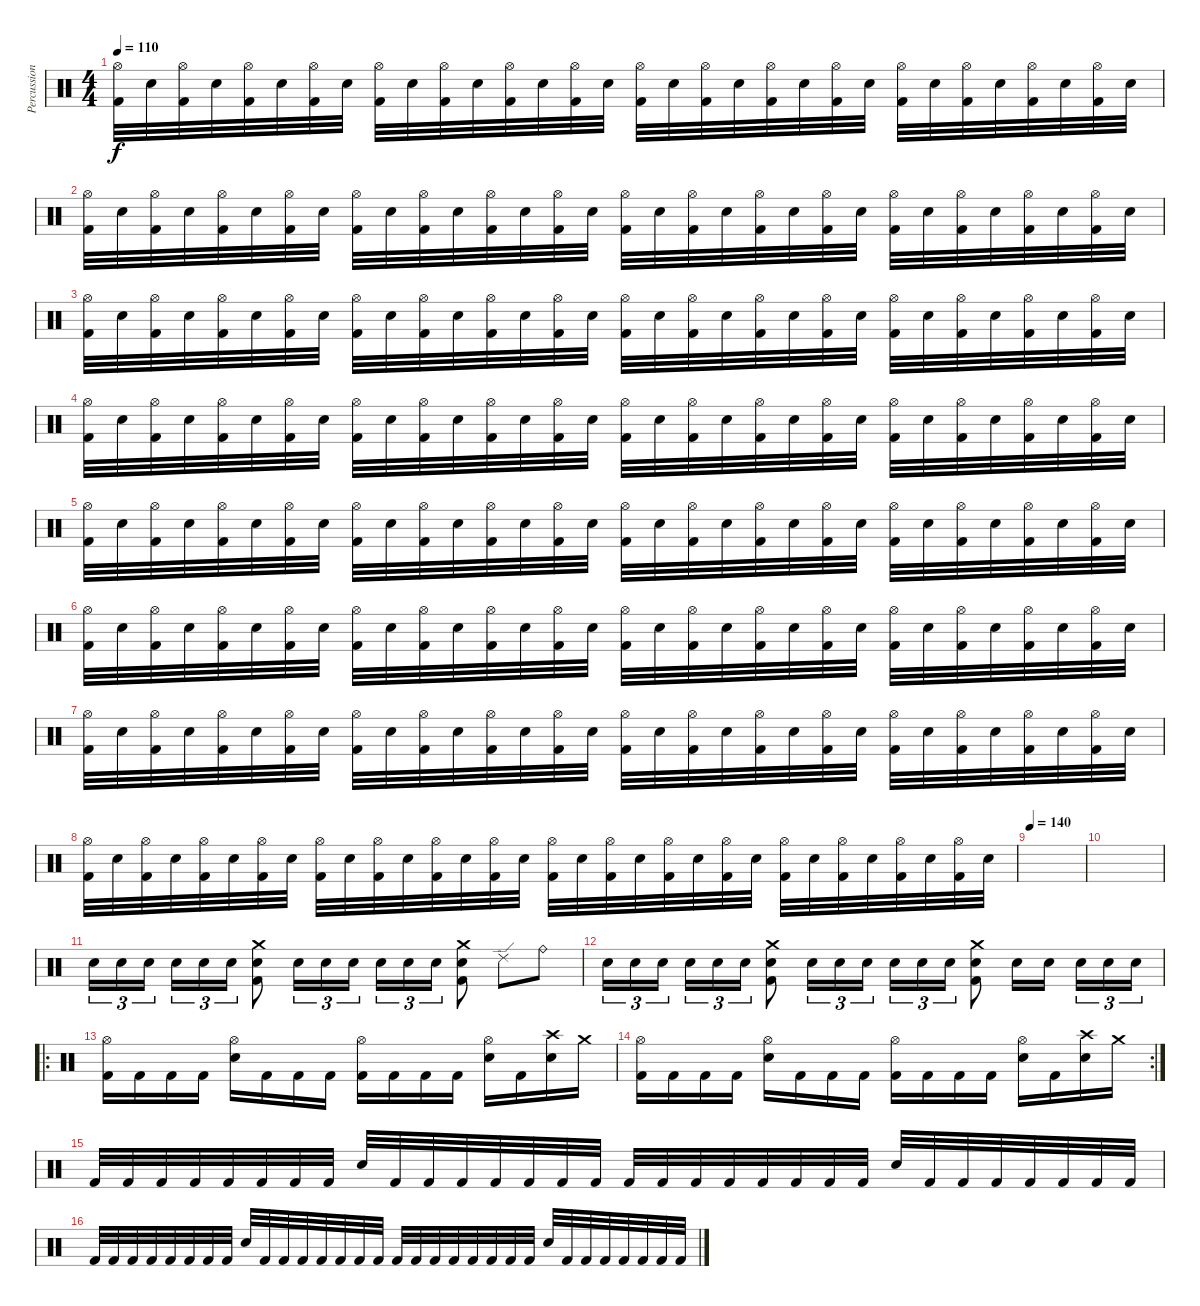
\track ("Percussion" "Percussion") {instrument percussion}
\staff {score}
\articulation defaults
\ts (4 4)
\tempo 110
\clef neutral
\ks c
("Hi-Hat (open)" "Kick (hit) 2").32{dy f} "Snare (hit) 2".32 ("Hi-Hat (open)" "Kick (hit) 2").32 "Snare (hit) 2".32 ("Hi-Hat (open)" "Kick (hit) 2").32 "Snare (hit) 2".32 ("Hi-Hat (open)" "Kick (hit) 2").32 "Snare (hit) 2".32 ("Hi-Hat (open)" "Kick (hit) 2").32 "Snare (hit) 2".32 ("Hi-Hat (open)" "Kick (hit) 2").32 "Snare (hit) 2".32 ("Hi-Hat (open)" "Kick (hit) 2").32 "Snare (hit) 2".32 ("Hi-Hat (open)" "Kick (hit) 2").32 "Snare (hit) 2".32 ("Hi-Hat (open)" "Kick (hit) 2").32 "Snare (hit) 2".32 ("Hi-Hat (open)" "Kick (hit) 2").32 "Snare (hit) 2".32 ("Hi-Hat (open)" "Kick (hit) 2").32 "Snare (hit) 2".32 ("Hi-Hat (open)" "Kick (hit) 2").32 "Snare (hit) 2".32 ("Hi-Hat (open)" "Kick (hit) 2").32 "Snare (hit) 2".32 ("Hi-Hat (open)" "Kick (hit) 2").32 "Snare (hit) 2".32 ("Hi-Hat (open)" "Kick (hit) 2").32 "Snare (hit) 2".32 ("Hi-Hat (open)" "Kick (hit) 2").32 "Snare (hit) 2".32 |
("Hi-Hat (open)" "Kick (hit) 2").32 "Snare (hit) 2".32 ("Hi-Hat (open)" "Kick (hit) 2").32 "Snare (hit) 2".32 ("Hi-Hat (open)" "Kick (hit) 2").32 "Snare (hit) 2".32 ("Hi-Hat (open)" "Kick (hit) 2").32 "Snare (hit) 2".32 ("Hi-Hat (open)" "Kick (hit) 2").32 "Snare (hit) 2".32 ("Hi-Hat (open)" "Kick (hit) 2").32 "Snare (hit) 2".32 ("Hi-Hat (open)" "Kick (hit) 2").32 "Snare (hit) 2".32 ("Hi-Hat (open)" "Kick (hit) 2").32 "Snare (hit) 2".32 ("Hi-Hat (open)" "Kick (hit) 2").32 "Snare (hit) 2".32 ("Hi-Hat (open)" "Kick (hit) 2").32 "Snare (hit) 2".32 ("Hi-Hat (open)" "Kick (hit) 2").32 "Snare (hit) 2".32 ("Hi-Hat (open)" "Kick (hit) 2").32 "Snare (hit) 2".32 ("Hi-Hat (open)" "Kick (hit) 2").32 "Snare (hit) 2".32 ("Hi-Hat (open)" "Kick (hit) 2").32 "Snare (hit) 2".32 ("Hi-Hat (open)" "Kick (hit) 2").32 "Snare (hit) 2".32 ("Hi-Hat (open)" "Kick (hit) 2").32 "Snare (hit) 2".32 |
("Hi-Hat (open)" "Kick (hit) 2").32 "Snare (hit) 2".32 ("Hi-Hat (open)" "Kick (hit) 2").32 "Snare (hit) 2".32 ("Hi-Hat (open)" "Kick (hit) 2").32 "Snare (hit) 2".32 ("Hi-Hat (open)" "Kick (hit) 2").32 "Snare (hit) 2".32 ("Hi-Hat (open)" "Kick (hit) 2").32 "Snare (hit) 2".32 ("Hi-Hat (open)" "Kick (hit) 2").32 "Snare (hit) 2".32 ("Hi-Hat (open)" "Kick (hit) 2").32 "Snare (hit) 2".32 ("Hi-Hat (open)" "Kick (hit) 2").32 "Snare (hit) 2".32 ("Hi-Hat (open)" "Kick (hit) 2").32 "Snare (hit) 2".32 ("Hi-Hat (open)" "Kick (hit) 2").32 "Snare (hit) 2".32 ("Hi-Hat (open)" "Kick (hit) 2").32 "Snare (hit) 2".32 ("Hi-Hat (open)" "Kick (hit) 2").32 "Snare (hit) 2".32 ("Hi-Hat (open)" "Kick (hit) 2").32 "Snare (hit) 2".32 ("Hi-Hat (open)" "Kick (hit) 2").32 "Snare (hit) 2".32 ("Hi-Hat (open)" "Kick (hit) 2").32 "Snare (hit) 2".32 ("Hi-Hat (open)" "Kick (hit) 2").32 "Snare (hit) 2".32 |
("Hi-Hat (open)" "Kick (hit) 2").32 "Snare (hit) 2".32 ("Hi-Hat (open)" "Kick (hit) 2").32 "Snare (hit) 2".32 ("Hi-Hat (open)" "Kick (hit) 2").32 "Snare (hit) 2".32 ("Hi-Hat (open)" "Kick (hit) 2").32 "Snare (hit) 2".32 ("Hi-Hat (open)" "Kick (hit) 2").32 "Snare (hit) 2".32 ("Hi-Hat (open)" "Kick (hit) 2").32 "Snare (hit) 2".32 ("Hi-Hat (open)" "Kick (hit) 2").32 "Snare (hit) 2".32 ("Hi-Hat (open)" "Kick (hit) 2").32 "Snare (hit) 2".32 ("Hi-Hat (open)" "Kick (hit) 2").32 "Snare (hit) 2".32 ("Hi-Hat (open)" "Kick (hit) 2").32 "Snare (hit) 2".32 ("Hi-Hat (open)" "Kick (hit) 2").32 "Snare (hit) 2".32 ("Hi-Hat (open)" "Kick (hit) 2").32 "Snare (hit) 2".32 ("Hi-Hat (open)" "Kick (hit) 2").32 "Snare (hit) 2".32 ("Hi-Hat (open)" "Kick (hit) 2").32 "Snare (hit) 2".32 ("Hi-Hat (open)" "Kick (hit) 2").32 "Snare (hit) 2".32 ("Hi-Hat (open)" "Kick (hit) 2").32 "Snare (hit) 2".32 |
("Hi-Hat (open)" "Kick (hit) 2").32 "Snare (hit) 2".32 ("Hi-Hat (open)" "Kick (hit) 2").32 "Snare (hit) 2".32 ("Hi-Hat (open)" "Kick (hit) 2").32 "Snare (hit) 2".32 ("Hi-Hat (open)" "Kick (hit) 2").32 "Snare (hit) 2".32 ("Hi-Hat (open)" "Kick (hit) 2").32 "Snare (hit) 2".32 ("Hi-Hat (open)" "Kick (hit) 2").32 "Snare (hit) 2".32 ("Hi-Hat (open)" "Kick (hit) 2").32 "Snare (hit) 2".32 ("Hi-Hat (open)" "Kick (hit) 2").32 "Snare (hit) 2".32 ("Hi-Hat (open)" "Kick (hit) 2").32 "Snare (hit) 2".32 ("Hi-Hat (open)" "Kick (hit) 2").32 "Snare (hit) 2".32 ("Hi-Hat (open)" "Kick (hit) 2").32 "Snare (hit) 2".32 ("Hi-Hat (open)" "Kick (hit) 2").32 "Snare (hit) 2".32 ("Hi-Hat (open)" "Kick (hit) 2").32 "Snare (hit) 2".32 ("Hi-Hat (open)" "Kick (hit) 2").32 "Snare (hit) 2".32 ("Hi-Hat (open)" "Kick (hit) 2").32 "Snare (hit) 2".32 ("Hi-Hat (open)" "Kick (hit) 2").32 "Snare (hit) 2".32 |
("Hi-Hat (open)" "Kick (hit) 2").32 "Snare (hit) 2".32 ("Hi-Hat (open)" "Kick (hit) 2").32 "Snare (hit) 2".32 ("Hi-Hat (open)" "Kick (hit) 2").32 "Snare (hit) 2".32 ("Hi-Hat (open)" "Kick (hit) 2").32 "Snare (hit) 2".32 ("Hi-Hat (open)" "Kick (hit) 2").32 "Snare (hit) 2".32 ("Hi-Hat (open)" "Kick (hit) 2").32 "Snare (hit) 2".32 ("Hi-Hat (open)" "Kick (hit) 2").32 "Snare (hit) 2".32 ("Hi-Hat (open)" "Kick (hit) 2").32 "Snare (hit) 2".32 ("Hi-Hat (open)" "Kick (hit) 2").32 "Snare (hit) 2".32 ("Hi-Hat (open)" "Kick (hit) 2").32 "Snare (hit) 2".32 ("Hi-Hat (open)" "Kick (hit) 2").32 "Snare (hit) 2".32 ("Hi-Hat (open)" "Kick (hit) 2").32 "Snare (hit) 2".32 ("Hi-Hat (open)" "Kick (hit) 2").32 "Snare (hit) 2".32 ("Hi-Hat (open)" "Kick (hit) 2").32 "Snare (hit) 2".32 ("Hi-Hat (open)" "Kick (hit) 2").32 "Snare (hit) 2".32 ("Hi-Hat (open)" "Kick (hit) 2").32 "Snare (hit) 2".32 |
("Hi-Hat (open)" "Kick (hit) 2").32 "Snare (hit) 2".32 ("Hi-Hat (open)" "Kick (hit) 2").32 "Snare (hit) 2".32 ("Hi-Hat (open)" "Kick (hit) 2").32 "Snare (hit) 2".32 ("Hi-Hat (open)" "Kick (hit) 2").32 "Snare (hit) 2".32 ("Hi-Hat (open)" "Kick (hit) 2").32 "Snare (hit) 2".32 ("Hi-Hat (open)" "Kick (hit) 2").32 "Snare (hit) 2".32 ("Hi-Hat (open)" "Kick (hit) 2").32 "Snare (hit) 2".32 ("Hi-Hat (open)" "Kick (hit) 2").32 "Snare (hit) 2".32 ("Hi-Hat (open)" "Kick (hit) 2").32 "Snare (hit) 2".32 ("Hi-Hat (open)" "Kick (hit) 2").32 "Snare (hit) 2".32 ("Hi-Hat (open)" "Kick (hit) 2").32 "Snare (hit) 2".32 ("Hi-Hat (open)" "Kick (hit) 2").32 "Snare (hit) 2".32 ("Hi-Hat (open)" "Kick (hit) 2").32 "Snare (hit) 2".32 ("Hi-Hat (open)" "Kick (hit) 2").32 "Snare (hit) 2".32 ("Hi-Hat (open)" "Kick (hit) 2").32 "Snare (hit) 2".32 ("Hi-Hat (open)" "Kick (hit) 2").32 "Snare (hit) 2".32 |
("Hi-Hat (open)" "Kick (hit) 2").32 "Snare (hit) 2".32 ("Hi-Hat (open)" "Kick (hit) 2").32 "Snare (hit) 2".32 ("Hi-Hat (open)" "Kick (hit) 2").32 "Snare (hit) 2".32 ("Hi-Hat (open)" "Kick (hit) 2").32 "Snare (hit) 2".32 ("Hi-Hat (open)" "Kick (hit) 2").32 "Snare (hit) 2".32 ("Hi-Hat (open)" "Kick (hit) 2").32 "Snare (hit) 2".32 ("Hi-Hat (open)" "Kick (hit) 2").32 "Snare (hit) 2".32 ("Hi-Hat (open)" "Kick (hit) 2").32 "Snare (hit) 2".32 ("Hi-Hat (open)" "Kick (hit) 2").32 "Snare (hit) 2".32 ("Hi-Hat (open)" "Kick (hit) 2").32 "Snare (hit) 2".32 ("Hi-Hat (open)" "Kick (hit) 2").32 "Snare (hit) 2".32 ("Hi-Hat (open)" "Kick (hit) 2").32 "Snare (hit) 2".32 ("Hi-Hat (open)" "Kick (hit) 2").32 "Snare (hit) 2".32 ("Hi-Hat (open)" "Kick (hit) 2").32 "Snare (hit) 2".32 ("Hi-Hat (open)" "Kick (hit) 2").32 "Snare (hit) 2".32 ("Hi-Hat (open)" "Kick (hit) 2").32 "Snare (hit) 2".32 |
\tempo 140
|
|
"Snare (hit) 2".16{tu (3 2)} "Snare (hit) 2".16{tu (3 2)} "Snare (hit) 2".16{tu (3 2) beam splitsecondary} "Snare (hit) 2".16{tu (3 2)} "Snare (hit) 2".16{tu (3 2)} "Snare (hit) 2".16{tu (3 2)} ("Crash medium (hit)" "Snare (hit) 2" "Kick (hit) 2").8 "Snare (hit) 2".16{tu (3 2)} "Snare (hit) 2".16{tu (3 2)} "Snare (hit) 2".16{tu (3 2)} "Snare (hit) 2".16{tu (3 2)} "Snare (hit) 2".16{tu (3 2)} "Snare (hit) 2".16{tu (3 2)} ("Crash medium (hit)" "Snare (hit) 2" "Kick (hit) 2").8 "Ride (edge) 2".8 "Ride (bell)".8 |
"Snare (hit) 2".16{tu (3 2)} "Snare (hit) 2".16{tu (3 2)} "Snare (hit) 2".16{tu (3 2) beam splitsecondary} "Snare (hit) 2".16{tu (3 2)} "Snare (hit) 2".16{tu (3 2)} "Snare (hit) 2".16{tu (3 2)} ("Crash medium (hit)" "Snare (hit) 2" "Kick (hit) 2").8 "Snare (hit) 2".16{tu (3 2)} "Snare (hit) 2".16{tu (3 2)} "Snare (hit) 2".16{tu (3 2)} "Snare (hit) 2".16{tu (3 2)} "Snare (hit) 2".16{tu (3 2)} "Snare (hit) 2".16{tu (3 2)} ("Crash medium (hit)" "Snare (hit) 2" "Kick (hit) 2").8 "Snare (hit) 2".16 "Snare (hit) 2".16{beam splitsecondary} "Snare (hit) 2".16{tu (3 2)} "Snare (hit) 2".16{tu (3 2)} "Snare (hit) 2".16{tu (3 2)} |
\ro
("Hi-Hat (open)" "Kick (hit) 2").16 "Kick (hit) 2".16 "Kick (hit) 2".16 "Kick (hit) 2".16 ("Hi-Hat (open)" "Snare (hit) 2").16 "Kick (hit) 2".16 "Kick (hit) 2".16 "Kick (hit) 2".16 ("Hi-Hat (open)" "Kick (hit) 2").16 "Kick (hit) 2".16 "Kick (hit) 2".16 "Kick (hit) 2".16 ("Hi-Hat (open)" "Snare (hit) 2").16 "Kick (hit) 2".16 ("Crash high (hit)" "Snare (hit) 2").16 "Crash medium (hit)".16 |
\rc 2
("Hi-Hat (open)" "Kick (hit) 2").16 "Kick (hit) 2".16 "Kick (hit) 2".16 "Kick (hit) 2".16 ("Hi-Hat (open)" "Snare (hit) 2").16 "Kick (hit) 2".16 "Kick (hit) 2".16 "Kick (hit) 2".16 ("Hi-Hat (open)" "Kick (hit) 2").16 "Kick (hit) 2".16 "Kick (hit) 2".16 "Kick (hit) 2".16 ("Hi-Hat (open)" "Snare (hit) 2").16 "Kick (hit) 2".16 ("Crash high (hit)" "Snare (hit) 2").16 "Crash medium (hit)".16 |
"Kick (hit) 2".32 "Kick (hit) 2".32 "Kick (hit) 2".32 "Kick (hit) 2".32 "Kick (hit) 2".32 "Kick (hit) 2".32 "Kick (hit) 2".32 "Kick (hit) 2".32 "Snare (hit) 2".32 "Kick (hit) 2".32 "Kick (hit) 2".32 "Kick (hit) 2".32 "Kick (hit) 2".32 "Kick (hit) 2".32 "Kick (hit) 2".32 "Kick (hit) 2".32 "Kick (hit) 2".32 "Kick (hit) 2".32 "Kick (hit) 2".32 "Kick (hit) 2".32 "Kick (hit) 2".32 "Kick (hit) 2".32 "Kick (hit) 2".32 "Kick (hit) 2".32 "Snare (hit) 2".32 "Kick (hit) 2".32 "Kick (hit) 2".32 "Kick (hit) 2".32 "Kick (hit) 2".32 "Kick (hit) 2".32 "Kick (hit) 2".32 "Kick (hit) 2".32 |
"Kick (hit) 2".32 "Kick (hit) 2".32 "Kick (hit) 2".32 "Kick (hit) 2".32 "Kick (hit) 2".32 "Kick (hit) 2".32 "Kick (hit) 2".32 "Kick (hit) 2".32 "Snare (hit) 2".32 "Kick (hit) 2".32 "Kick (hit) 2".32 "Kick (hit) 2".32 "Kick (hit) 2".32 "Kick (hit) 2".32 "Kick (hit) 2".32 "Kick (hit) 2".32 "Kick (hit) 2".32 "Kick (hit) 2".32 "Kick (hit) 2".32 "Kick (hit) 2".32 "Kick (hit) 2".32 "Kick (hit) 2".32 "Kick (hit) 2".32 "Kick (hit) 2".32 "Snare (hit) 2".32 "Kick (hit) 2".32 "Kick (hit) 2".32 "Kick (hit) 2".32 "Kick (hit) 2".32 "Kick (hit) 2".32 "Kick (hit) 2".32 "Kick (hit) 2".32
